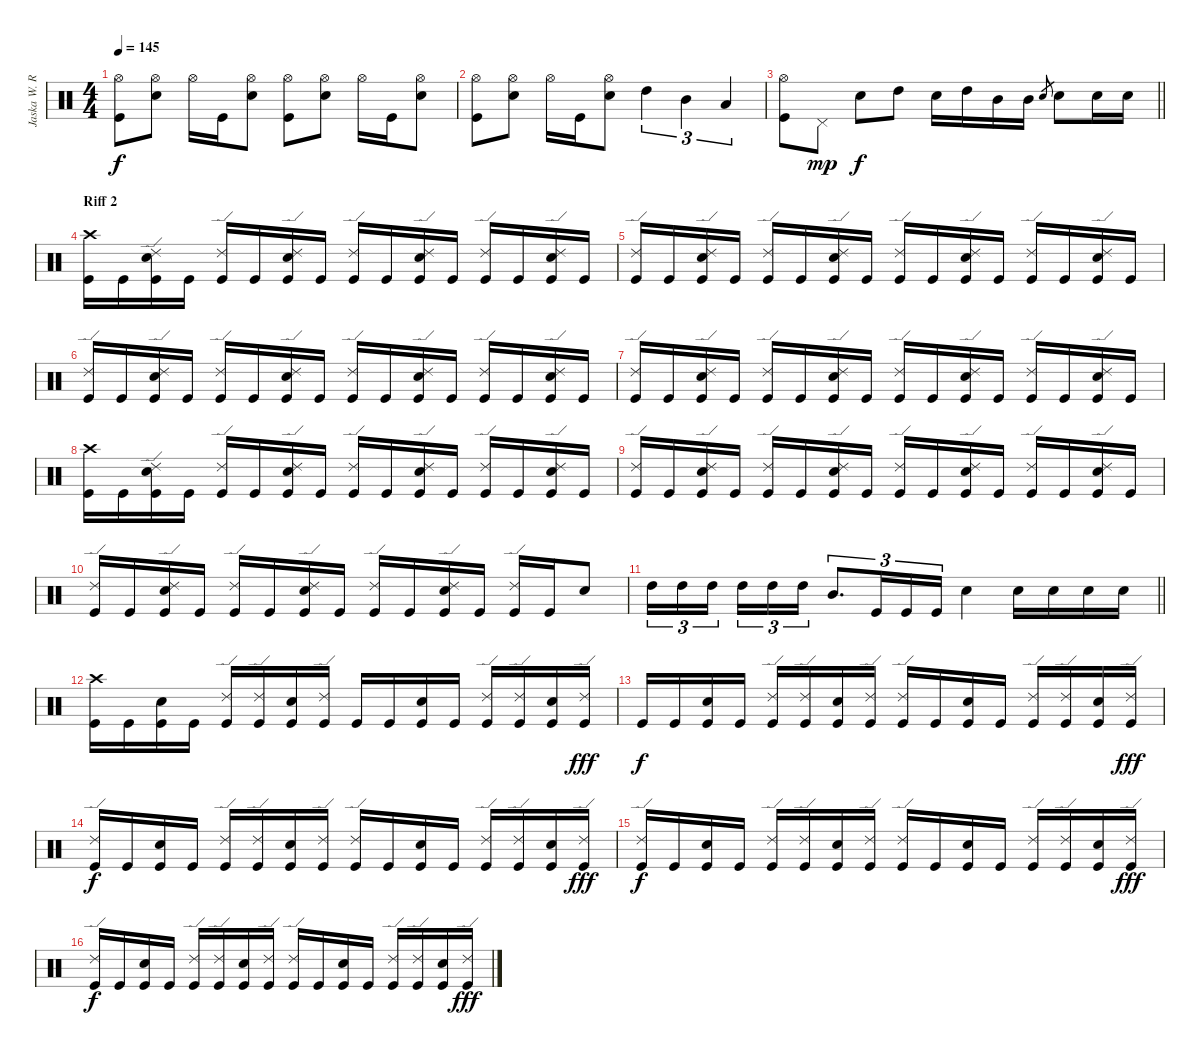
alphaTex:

\track ("Jaska W. Raatikainen" "Jaska W. R") {instrument percussion}
\staff {score}
\articulation defaults
\ts (4 4)
\tempo 145
\clef neutral
\ks c
("Hi-Hat (open)" "Kick (hit)").8{dy f} ("Hi-Hat (open)" "Snare (hit) 2").8 "Hi-Hat (open)".16 "Kick (hit)".16 ("Hi-Hat (open)" "Snare (hit) 2").8 ("Hi-Hat (open)" "Kick (hit)").8 ("Hi-Hat (open)" "Snare (hit) 2").8 "Hi-Hat (open)".16 "Kick (hit)".16 ("Hi-Hat (open)" "Snare (hit) 2").8 |
("Hi-Hat (open)" "Kick (hit)").8 ("Hi-Hat (open)" "Snare (hit) 2").8 "Hi-Hat (open)".16 "Kick (hit)".16 ("Hi-Hat (open)" "Snare (hit) 2").8 "High Tom (hit)".4{tu (3 2)} "Mid Tom (hit)".4{tu (3 2)} "Low Tom (hit)".4{tu (3 2)} |
\barLineRight lightlight
("Hi-Hat (open)" "Kick (hit)").8 "Pedal Hi-Hat (hit)".8{dy mp} "Snare (hit) 2".8{dy f} "High Tom (hit)".8 "Snare (hit) 2".16 "High Tom (hit)".16 "Mid Tom (hit)".16 "Mid Tom (hit)".16 "Snare (hit) 2".8{gr} "Snare (hit) 2".8 "Snare (hit) 2".16 "Snare (hit) 2".16 |
\section ("" "Riff 2")
("Crash high (hit)" "Kick (hit)").16 "Kick (hit)".16 ("Ride (edge) 2" "Snare (hit) 2" "Kick (hit)").16 "Kick (hit)".16 ("Ride (edge) 2" "Kick (hit)").16 "Kick (hit)".16 ("Ride (edge) 2" "Snare (hit) 2" "Kick (hit)").16 "Kick (hit)".16 ("Ride (edge) 2" "Kick (hit)").16 "Kick (hit)".16 ("Ride (edge) 2" "Snare (hit) 2" "Kick (hit)").16 "Kick (hit)".16 ("Ride (edge) 2" "Kick (hit)").16 "Kick (hit)".16 ("Ride (edge) 2" "Snare (hit) 2" "Kick (hit)").16 "Kick (hit)".16 |
("Ride (edge) 2" "Kick (hit)").16 "Kick (hit)".16 ("Ride (edge) 2" "Snare (hit) 2" "Kick (hit)").16 "Kick (hit)".16 ("Ride (edge) 2" "Kick (hit)").16 "Kick (hit)".16 ("Ride (edge) 2" "Snare (hit) 2" "Kick (hit)").16 "Kick (hit)".16 ("Ride (edge) 2" "Kick (hit)").16 "Kick (hit)".16 ("Ride (edge) 2" "Snare (hit) 2" "Kick (hit)").16 "Kick (hit)".16 ("Ride (edge) 2" "Kick (hit)").16 "Kick (hit)".16 ("Ride (edge) 2" "Snare (hit) 2" "Kick (hit)").16 "Kick (hit)".16 |
("Ride (edge) 2" "Kick (hit)").16 "Kick (hit)".16 ("Ride (edge) 2" "Snare (hit) 2" "Kick (hit)").16 "Kick (hit)".16 ("Ride (edge) 2" "Kick (hit)").16 "Kick (hit)".16 ("Ride (edge) 2" "Snare (hit) 2" "Kick (hit)").16 "Kick (hit)".16 ("Ride (edge) 2" "Kick (hit)").16 "Kick (hit)".16 ("Ride (edge) 2" "Snare (hit) 2" "Kick (hit)").16 "Kick (hit)".16 ("Ride (edge) 2" "Kick (hit)").16 "Kick (hit)".16 ("Ride (edge) 2" "Snare (hit) 2" "Kick (hit)").16 "Kick (hit)".16 |
("Ride (edge) 2" "Kick (hit)").16 "Kick (hit)".16 ("Ride (edge) 2" "Snare (hit) 2" "Kick (hit)").16 "Kick (hit)".16 ("Ride (edge) 2" "Kick (hit)").16 "Kick (hit)".16 ("Ride (edge) 2" "Snare (hit) 2" "Kick (hit)").16 "Kick (hit)".16 ("Ride (edge) 2" "Kick (hit)").16 "Kick (hit)".16 ("Ride (edge) 2" "Snare (hit) 2" "Kick (hit)").16 "Kick (hit)".16 ("Ride (edge) 2" "Kick (hit)").16 "Kick (hit)".16 ("Ride (edge) 2" "Snare (hit) 2" "Kick (hit)").16 "Kick (hit)".16 |
("Crash high (hit)" "Kick (hit)").16 "Kick (hit)".16 ("Ride (edge) 2" "Snare (hit) 2" "Kick (hit)").16 "Kick (hit)".16 ("Ride (edge) 2" "Kick (hit)").16 "Kick (hit)".16 ("Ride (edge) 2" "Snare (hit) 2" "Kick (hit)").16 "Kick (hit)".16 ("Ride (edge) 2" "Kick (hit)").16 "Kick (hit)".16 ("Ride (edge) 2" "Snare (hit) 2" "Kick (hit)").16 "Kick (hit)".16 ("Ride (edge) 2" "Kick (hit)").16 "Kick (hit)".16 ("Ride (edge) 2" "Snare (hit) 2" "Kick (hit)").16 "Kick (hit)".16 |
("Ride (edge) 2" "Kick (hit)").16 "Kick (hit)".16 ("Ride (edge) 2" "Snare (hit) 2" "Kick (hit)").16 "Kick (hit)".16 ("Ride (edge) 2" "Kick (hit)").16 "Kick (hit)".16 ("Ride (edge) 2" "Snare (hit) 2" "Kick (hit)").16 "Kick (hit)".16 ("Ride (edge) 2" "Kick (hit)").16 "Kick (hit)".16 ("Ride (edge) 2" "Snare (hit) 2" "Kick (hit)").16 "Kick (hit)".16 ("Ride (edge) 2" "Kick (hit)").16 "Kick (hit)".16 ("Ride (edge) 2" "Snare (hit) 2" "Kick (hit)").16 "Kick (hit)".16 |
("Ride (edge) 2" "Kick (hit)").16 "Kick (hit)".16 ("Ride (edge) 2" "Snare (hit) 2" "Kick (hit)").16 "Kick (hit)".16 ("Ride (edge) 2" "Kick (hit)").16 "Kick (hit)".16 ("Ride (edge) 2" "Snare (hit) 2" "Kick (hit)").16 "Kick (hit)".16 ("Ride (edge) 2" "Kick (hit)").16 "Kick (hit)".16 ("Ride (edge) 2" "Snare (hit) 2" "Kick (hit)").16 "Kick (hit)".16 ("Ride (edge) 2" "Kick (hit)").16 "Kick (hit)".16 "Snare (hit) 2".8 |
\barLineRight lightlight "High Tom (hit)".16{tu (3 2)} "High Tom (hit)".16{tu (3 2)} "High Tom (hit)".16{tu (3 2) beam splitsecondary} "High Tom (hit)".16{tu (3 2)} "High Tom (hit)".16{tu (3 2)} "High Tom (hit)".16{tu (3 2)} "Mid Tom (hit)".8{d tu (3 2)} "Kick (hit)".16{tu (3 2)} "Kick (hit)".16{tu (3 2)} "Kick (hit)".16{tu (3 2)} "Snare (hit) 2".4 "Snare (hit) 2".16 "Snare (hit) 2".16 "Snare (hit) 2".16 "Snare (hit) 2".16
|
("Crash high (hit)" "Kick (hit)").16 "Kick (hit)".16 ("Snare (hit) 2" "Kick (hit)").16 "Kick (hit)".16 ("Ride (edge) 2" "Kick (hit)").16 ("Ride (edge) 2" "Kick (hit)").16 ("Snare (hit) 2" "Kick (hit)").16 ("Ride (edge) 2" "Kick (hit)").16 "Kick (hit)".16 "Kick (hit)".16 ("Snare (hit) 2" "Kick (hit)").16 "Kick (hit)".16 ("Ride (edge) 2" "Kick (hit)").16 ("Ride (edge) 2" "Kick (hit)").16 ("Snare (hit) 2" "Kick (hit)").16 ("Ride (edge) 2" "Kick (hit)").16{dy fff} |
"Kick (hit)".16{dy f} "Kick (hit)".16 ("Snare (hit) 2" "Kick (hit)").16 "Kick (hit)".16 ("Ride (edge) 2" "Kick (hit)").16 ("Ride (edge) 2" "Kick (hit)").16 ("Snare (hit) 2" "Kick (hit)").16 ("Ride (edge) 2" "Kick (hit)").16 ("Ride (edge) 2" "Kick (hit)").16 "Kick (hit)".16 ("Snare (hit) 2" "Kick (hit)").16 "Kick (hit)".16 ("Ride (edge) 2" "Kick (hit)").16 ("Ride (edge) 2" "Kick (hit)").16 ("Snare (hit) 2" "Kick (hit)").16 ("Ride (edge) 2" "Kick (hit)").16{dy fff} |
("Ride (edge) 2" "Kick (hit)").16{dy f} "Kick (hit)".16 ("Snare (hit) 2" "Kick (hit)").16 "Kick (hit)".16 ("Ride (edge) 2" "Kick (hit)").16 ("Ride (edge) 2" "Kick (hit)").16 ("Snare (hit) 2" "Kick (hit)").16 ("Ride (edge) 2" "Kick (hit)").16 ("Ride (edge) 2" "Kick (hit)").16 "Kick (hit)".16 ("Snare (hit) 2" "Kick (hit)").16 "Kick (hit)".16 ("Ride (edge) 2" "Kick (hit)").16 ("Ride (edge) 2" "Kick (hit)").16 ("Snare (hit) 2" "Kick (hit)").16 ("Ride (edge) 2" "Kick (hit)").16{dy fff} |
("Ride (edge) 2" "Kick (hit)").16{dy f} "Kick (hit)".16 ("Snare (hit) 2" "Kick (hit)").16 "Kick (hit)".16 ("Ride (edge) 2" "Kick (hit)").16 ("Ride (edge) 2" "Kick (hit)").16 ("Snare (hit) 2" "Kick (hit)").16 ("Ride (edge) 2" "Kick (hit)").16 ("Ride (edge) 2" "Kick (hit)").16 "Kick (hit)".16 ("Snare (hit) 2" "Kick (hit)").16 "Kick (hit)".16 ("Ride (edge) 2" "Kick (hit)").16 ("Ride (edge) 2" "Kick (hit)").16 ("Snare (hit) 2" "Kick (hit)").16 ("Ride (edge) 2" "Kick (hit)").16{dy fff} |
("Ride (edge) 2" "Kick (hit)").16{dy f} "Kick (hit)".16 ("Snare (hit) 2" "Kick (hit)").16 "Kick (hit)".16 ("Ride (edge) 2" "Kick (hit)").16 ("Ride (edge) 2" "Kick (hit)").16 ("Snare (hit) 2" "Kick (hit)").16 ("Ride (edge) 2" "Kick (hit)").16 ("Ride (edge) 2" "Kick (hit)").16 "Kick (hit)".16 ("Snare (hit) 2" "Kick (hit)").16 "Kick (hit)".16 ("Ride (edge) 2" "Kick (hit)").16 ("Ride (edge) 2" "Kick (hit)").16 ("Snare (hit) 2" "Kick (hit)").16 ("Ride (edge) 2" "Kick (hit)").16{dy fff}
